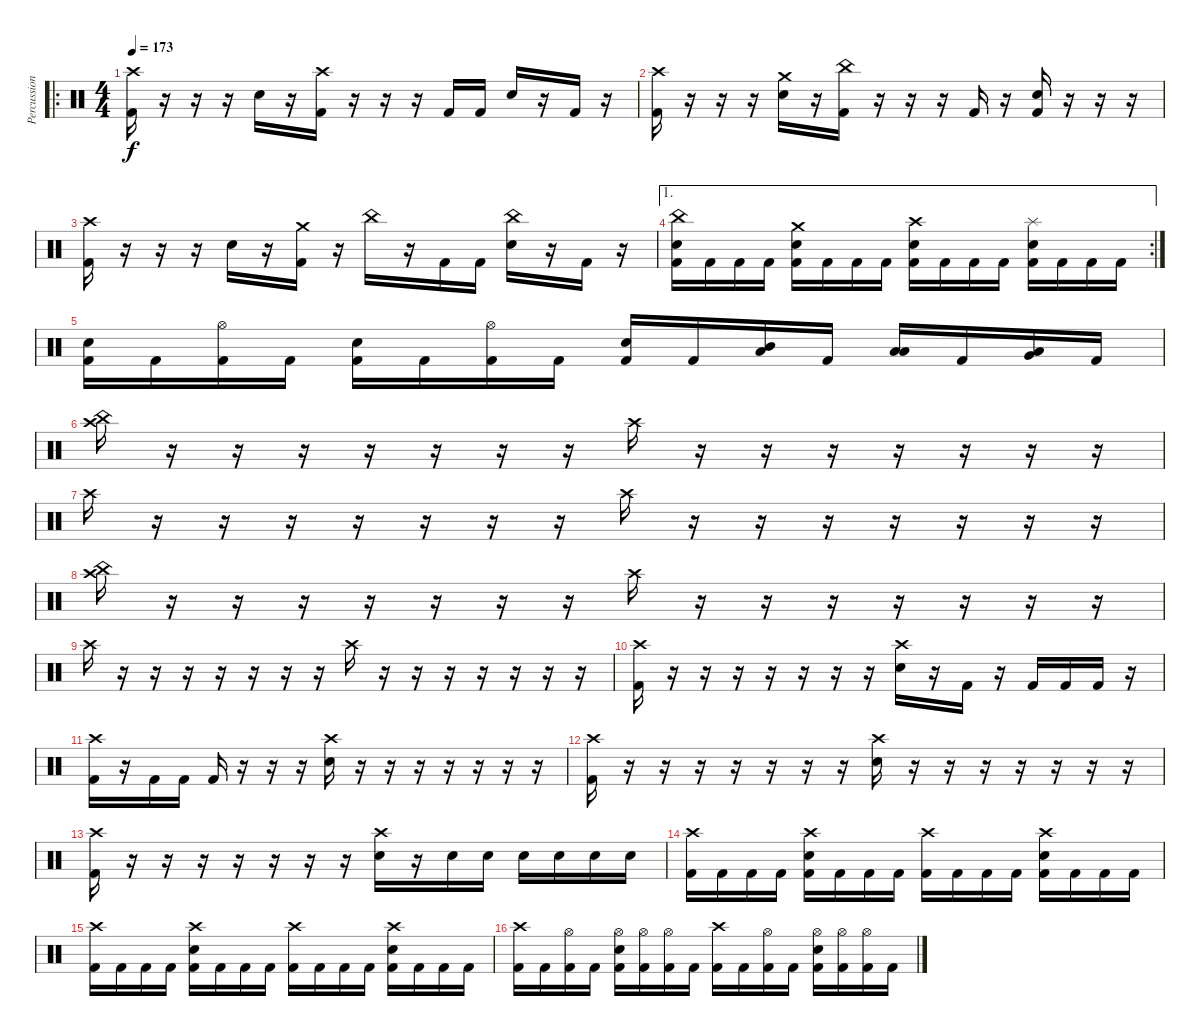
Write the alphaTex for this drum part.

\track ("Percussion" "Percussion") {instrument percussion}
\staff {score}
\articulation defaults
\ro
\ts (4 4)
\tempo 173
\clef neutral
\ks c
("Crash high (hit)" "Kick (hit) 2").16{dy f} r.16 r.16 r.16 "Electric Snare (hit)".16 r.16 ("Crash high (hit)" "Kick (hit) 2").16 r.16 r.16 r.16 "Kick (hit) 2".16 "Kick (hit) 2".16 "Electric Snare (hit)".16 r.16 "Kick (hit) 2".16 r.16 |
("Crash high (hit)" "Kick (hit) 2").16 r.16 r.16 r.16 ("Crash medium (hit)" "Electric Snare (hit)").16 r.16 ("China (hit)" "Kick (hit) 2").16 r.16 r.16 r.16 "Kick (hit) 2".16 r.16 ("Electric Snare (hit)" "Kick (hit) 2").16 r.16 r.16 r.16 |
("Crash high (hit)" "Kick (hit) 2").16 r.16 r.16 r.16 "Electric Snare (hit)".16 r.16 ("Crash medium (hit)" "Kick (hit) 2").16 r.16 "China (hit)".16 r.16 "Kick (hit) 2".16 "Kick (hit) 2".16 ("China (hit)" "Electric Snare (hit)").16 r.16 "Kick (hit) 2".16 r.16 |
\ae 1
\rc 2
("China (hit)" "Electric Snare (hit)" "Kick (hit) 2").16 "Kick (hit) 2".16 "Kick (hit) 2".16 "Kick (hit) 2".16 ("Crash medium (hit)" "Electric Snare (hit)" "Kick (hit) 2").16 "Kick (hit) 2".16 "Kick (hit) 2".16 "Kick (hit) 2".16 ("Crash high (hit)" "Electric Snare (hit)" "Kick (hit) 2").16 "Kick (hit) 2".16 "Kick (hit) 2".16 "Kick (hit) 2".16 ("Splash (hit)" "Electric Snare (hit)" "Kick (hit) 2").16 "Kick (hit) 2".16 "Kick (hit) 2".16 "Kick (hit) 2".16 |
("Electric Snare (hit)" "Kick (hit) 2").16 "Kick (hit) 2".16 ("Hi-Hat (open)" "Kick (hit) 2").16 "Kick (hit) 2".16 ("Electric Snare (hit)" "Kick (hit) 2").16 "Kick (hit) 2".16 ("Hi-Hat (open)" "Kick (hit) 2").16 "Kick (hit) 2".16 ("Electric Snare (hit)" "Kick (hit) 2").16 "Kick (hit) 2".16 ("Mid Tom (hit)" "Low Floor Tom (hit)").16 "Kick (hit) 2".16 ("Low Tom (hit)" "Low Floor Tom (hit)").16 "Kick (hit) 2".16 ("Very Low Tom (hit)" "Low Floor Tom (hit)").16 "Kick (hit) 2".16 |
("Crash high (hit)" "China (hit)").16 r.16 r.16 r.16 r.16 r.16 r.16 r.16 "Crash high (hit)".16 r.16 r.16 r.16 r.16 r.16 r.16 r.16 |
"Crash high (hit)".16 r.16 r.16 r.16 r.16 r.16 r.16 r.16 "Crash high (hit)".16 r.16 r.16 r.16 r.16 r.16 r.16 r.16 |
("Crash high (hit)" "China (hit)").16 r.16 r.16 r.16 r.16 r.16 r.16 r.16 "Crash high (hit)".16 r.16 r.16 r.16 r.16 r.16 r.16 r.16 |
"Crash high (hit)".16 r.16 r.16 r.16 r.16 r.16 r.16 r.16 "Crash high (hit)".16 r.16 r.16 r.16 r.16 r.16 r.16 r.16 |
("Crash high (hit)" "Kick (hit) 2").16 r.16 r.16 r.16 r.16 r.16 r.16 r.16 ("Crash high (hit)" "Electric Snare (hit)").16 r.16 "Kick (hit) 2".16 r.16 "Kick (hit) 2".16 "Kick (hit) 2".16 "Kick (hit) 2".16 r.16 |
("Crash high (hit)" "Kick (hit) 2").16 r.16 "Kick (hit) 2".16 "Kick (hit) 2".16 "Kick (hit) 2".16 r.16 r.16 r.16 ("Crash high (hit)" "Electric Snare (hit)").16 r.16 r.16 r.16 r.16 r.16 r.16 r.16 |
("Crash high (hit)" "Kick (hit) 2").16 r.16 r.16 r.16 r.16 r.16 r.16 r.16 ("Crash high (hit)" "Electric Snare (hit)").16 r.16 r.16 r.16 r.16 r.16 r.16 r.16 |
("Crash high (hit)" "Kick (hit) 2").16 r.16 r.16 r.16 r.16 r.16 r.16 r.16 ("Crash high (hit)" "Electric Snare (hit)").16 r.16 "Electric Snare (hit)".16 "Electric Snare (hit)".16 "Electric Snare (hit)".16 "Electric Snare (hit)".16 "Electric Snare (hit)".16 "Electric Snare (hit)".16 |
("Crash high (hit)" "Kick (hit) 2").16 "Kick (hit) 2".16 "Kick (hit) 2".16 "Kick (hit) 2".16 ("Crash high (hit)" "Electric Snare (hit)" "Kick (hit) 2").16 "Kick (hit) 2".16 "Kick (hit) 2".16 "Kick (hit) 2".16 ("Crash high (hit)" "Kick (hit) 2").16 "Kick (hit) 2".16 "Kick (hit) 2".16 "Kick (hit) 2".16 ("Crash high (hit)" "Electric Snare (hit)" "Kick (hit) 2").16 "Kick (hit) 2".16 "Kick (hit) 2".16 "Kick (hit) 2".16 |
("Crash high (hit)" "Kick (hit) 2").16 "Kick (hit) 2".16 "Kick (hit) 2".16 "Kick (hit) 2".16 ("Crash high (hit)" "Electric Snare (hit)" "Kick (hit) 2").16 "Kick (hit) 2".16 "Kick (hit) 2".16 "Kick (hit) 2".16 ("Crash high (hit)" "Kick (hit) 2").16 "Kick (hit) 2".16 "Kick (hit) 2".16 "Kick (hit) 2".16 ("Crash high (hit)" "Electric Snare (hit)" "Kick (hit) 2").16 "Kick (hit) 2".16 "Kick (hit) 2".16 "Kick (hit) 2".16 |
("Crash high (hit)" "Kick (hit) 2").16 "Kick (hit) 2".16 ("Hi-Hat (open)" "Kick (hit) 2").16 "Kick (hit) 2".16 ("Hi-Hat (open)" "Electric Snare (hit)" "Kick (hit) 2").16 ("Hi-Hat (open)" "Kick (hit) 2").16 ("Hi-Hat (open)" "Kick (hit) 2").16 "Kick (hit) 2".16 ("Crash high (hit)" "Kick (hit) 2").16 "Kick (hit) 2".16 ("Hi-Hat (open)" "Kick (hit) 2").16 "Kick (hit) 2".16 ("Hi-Hat (open)" "Electric Snare (hit)" "Kick (hit) 2").16 ("Hi-Hat (open)" "Kick (hit) 2").16 ("Hi-Hat (open)" "Kick (hit) 2").16 "Kick (hit) 2".16
